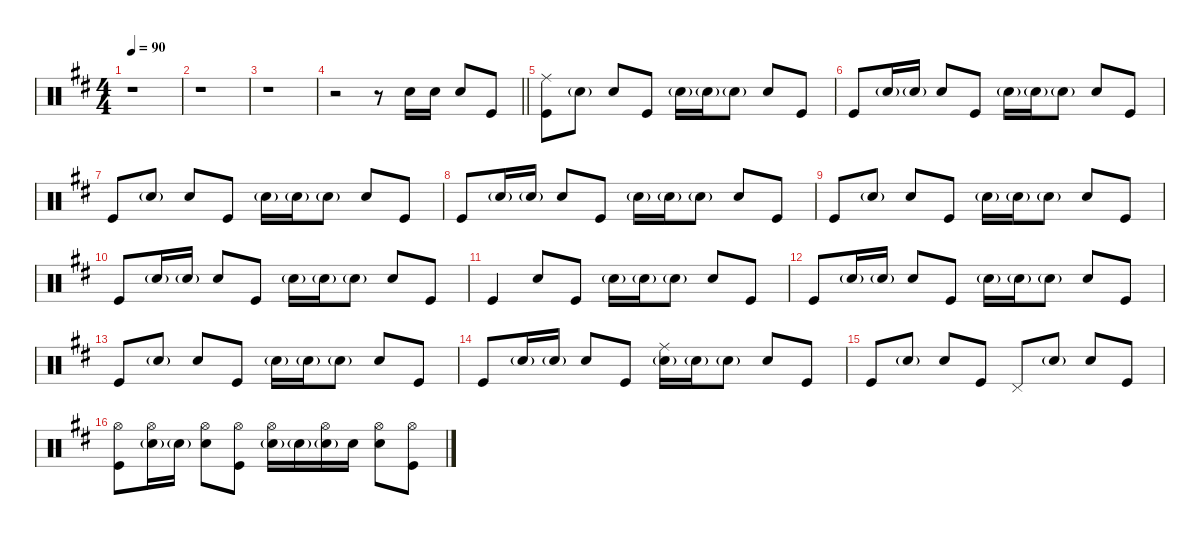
\defaultSystemsLayout 4
\hideDynamics
\bracketExtendMode nobrackets
\singleTrackTrackNamePolicy hidden
\multiTrackTrackNamePolicy hidden
\otherSystemsTrackNameOrientation horizontal
\track ("Drums" "drm.") {instrument percussion}
\staff {score}
\articulation defaults
\ts (4 4)
\tempo 90
\clef neutral
\ks bminor
r.1{dy ppp beam Down} |
r.1{beam Down} |
r.1{beam Down} |
\barLineRight lightlight
r.2{beam Down} r.8{beam Down} "Snare (hit) 2"{acc forcenatural}.16{beam Down} "Snare (hit) 2"{acc forcenatural}.16{dy p beam Down} "Snare (hit) 2"{acc forcenatural}.8{dy mp beam Up} "Kick (hit)"{acc forcenatural}.8{dy p beam Up} |
("Kick (hit)"{acc forcenatural} "Ride (middle)"{acc forcenatural}).8{beam Down} "Snare (hit) 2"{g acc forcenatural}.8{dy pp beam Down} "Snare (hit) 2"{acc forcenatural}.8{dy mp beam Up} "Kick (hit)"{acc forcenatural}.8{dy p beam Up} "Snare (hit) 2"{g acc forcenatural}.16{dy pp beam Down} "Snare (hit) 2"{g acc forcenatural}.16{beam Down} "Snare (hit) 2"{g acc forcenatural}.8{beam Down} "Snare (hit) 2"{acc forcenatural}.8{dy mp beam Up} "Kick (hit)"{acc forcenatural}.8{dy p beam Up} |
"Kick (hit)"{acc forcenatural}.8{beam Up} "Snare (hit) 2"{g acc forcenatural}.16{dy pp beam Up} "Snare (hit) 2"{g acc forcenatural}.16{beam Up} "Snare (hit) 2"{acc forcenatural}.8{dy mp beam Up} "Kick (hit)"{acc forcenatural}.8{dy p beam Up} "Snare (hit) 2"{g acc forcenatural}.16{dy pp beam Down} "Snare (hit) 2"{g acc forcenatural}.16{beam Down} "Snare (hit) 2"{g acc forcenatural}.8{beam Down} "Snare (hit) 2"{acc forcenatural}.8{dy mp beam Up} "Kick (hit)"{acc forcenatural}.8{dy pp beam Up} |
"Kick (hit)"{acc forcenatural}.8{dy p beam Up} "Snare (hit) 2"{g acc forcenatural}.8{dy pp beam Up} "Snare (hit) 2"{acc forcenatural}.8{dy mp beam Up} "Kick (hit)"{acc forcenatural}.8{dy p beam Up} "Snare (hit) 2"{g acc forcenatural}.16{dy pp beam Down} "Snare (hit) 2"{g acc forcenatural}.16{beam Down} "Snare (hit) 2"{g acc forcenatural}.8{beam Down} "Snare (hit) 2"{acc forcenatural}.8{dy mp beam Up} "Kick (hit)"{acc forcenatural}.8{beam Up} |
"Kick (hit)"{acc forcenatural}.8{beam Up} "Snare (hit) 2"{g acc forcenatural}.16{dy pp beam Up} "Snare (hit) 2"{g acc forcenatural}.16{beam Up} "Snare (hit) 2"{acc forcenatural}.8{dy mf beam Up} "Kick (hit)"{acc forcenatural}.8{dy mp beam Up} "Snare (hit) 2"{g acc forcenatural}.16{dy pp beam Down} "Snare (hit) 2"{g acc forcenatural}.16{beam Down} "Snare (hit) 2"{g acc forcenatural}.8{beam Down} "Snare (hit) 2"{acc forcenatural}.8{dy mf beam Up} "Kick (hit)"{acc forcenatural}.8{dy mp beam Up} |
"Kick (hit)"{acc forcenatural}.8{dy p beam Up} "Snare (hit) 2"{g acc forcenatural}.8{dy pp beam Up} "Snare (hit) 2"{acc forcenatural}.8{dy mf beam Up} "Kick (hit)"{acc forcenatural}.8{dy p beam Up} "Snare (hit) 2"{g acc forcenatural}.16{dy pp beam Down} "Snare (hit) 2"{g acc forcenatural}.16{beam Down} "Snare (hit) 2"{g acc forcenatural}.8{beam Down} "Snare (hit) 2"{acc forcenatural}.8{dy mf beam Up} "Kick (hit)"{acc forcenatural}.8{dy mp beam Up} |
"Kick (hit)"{acc forcenatural}.8{beam Up} "Snare (hit) 2"{g acc forcenatural}.16{dy pp beam Up} "Snare (hit) 2"{g acc forcenatural}.16{beam Up} "Snare (hit) 2"{acc forcenatural}.8{dy mf beam Up} "Kick (hit)"{acc forcenatural}.8{dy mp beam Up} "Snare (hit) 2"{g acc forcenatural}.16{dy pp beam Down} "Snare (hit) 2"{g acc forcenatural}.16{beam Down} "Snare (hit) 2"{g acc forcenatural}.8{beam Down} "Snare (hit) 2"{acc forcenatural}.8{dy mf beam Up} "Kick (hit)"{acc forcenatural}.8{dy mp beam Up} |
"Kick (hit)"{acc forcenatural}.4{dy mf beam Up} "Snare (hit) 2"{acc forcenatural}.8{dy f beam Up} "Kick (hit)"{acc forcenatural}.8{dy mp beam Up} "Snare (hit) 2"{g acc forcenatural}.16{dy pp beam Down} "Snare (hit) 2"{g acc forcenatural}.16{beam Down} "Snare (hit) 2"{g acc forcenatural}.8{beam Down} "Snare (hit) 2"{acc forcenatural}.8{dy f beam Up} "Kick (hit)"{acc forcenatural}.8{dy mf beam Up} |
"Kick (hit)"{acc forcenatural}.8{dy mp beam Up} "Snare (hit) 2"{g acc forcenatural}.16{dy pp beam Up} "Snare (hit) 2"{g acc forcenatural}.16{beam Up} "Snare (hit) 2"{acc forcenatural}.8{dy f beam Up} "Kick (hit)"{acc forcenatural}.8{dy mp beam Up} "Snare (hit) 2"{g acc forcenatural}.16{dy pp beam Down} "Snare (hit) 2"{g acc forcenatural}.16{beam Down} "Snare (hit) 2"{g acc forcenatural}.8{beam Down} "Snare (hit) 2"{acc forcenatural}.8{dy f beam Up} "Kick (hit)"{acc forcenatural}.8{dy mf beam Up} |
"Kick (hit)"{acc forcenatural}.8{beam Up} "Snare (hit) 2"{g acc forcenatural}.8{dy pp beam Up} "Snare (hit) 2"{acc forcenatural}.8{dy f beam Up} "Kick (hit)"{acc forcenatural}.8{dy mf beam Up} "Snare (hit) 2"{g acc forcenatural}.16{dy pp beam Down} "Snare (hit) 2"{g acc forcenatural}.16{beam Down} "Snare (hit) 2"{g acc forcenatural}.8{beam Down} "Snare (hit) 2"{acc forcenatural}.8{dy f beam Up} "Kick (hit)"{acc forcenatural}.8{dy mf beam Up} |
"Kick (hit)"{acc forcenatural}.8{beam Up} "Snare (hit) 2"{g acc forcenatural}.16{dy pp beam Up} "Snare (hit) 2"{g acc forcenatural}.16{beam Up} "Snare (hit) 2"{acc forcenatural}.8{dy f beam Up} "Kick (hit)"{acc forcenatural}.8{dy mp beam Up} ("Snare (hit) 2"{g acc forcenatural} "Ride (middle)"{acc forcenatural}).16{dy pp beam Down} "Snare (hit) 2"{g acc forcenatural}.16{beam Down} "Snare (hit) 2"{g acc forcenatural}.8{beam Down} "Snare (hit) 2"{acc forcenatural}.8{dy f beam Up} "Kick (hit)"{acc forcenatural}.8{dy mf beam Up} |
"Kick (hit)"{acc forcenatural}.8{beam Up} "Snare (hit) 2"{g acc forcenatural}.8{dy pp beam Up} "Snare (hit) 2"{acc forcenatural}.8{dy f beam Up} "Kick (hit)"{acc forcenatural}.8{dy mf beam Up} "Pedal Hi-Hat (hit)"{acc forcenatural}.8{dy mp beam Up} "Snare (hit) 2"{g acc forcenatural}.8{dy pp beam Up} "Snare (hit) 2"{acc forcenatural}.8{dy f beam Up} "Kick (hit)"{acc forcenatural}.8{dy mf beam Up} |
("Kick (hit)"{acc forcenatural} "Hi-Hat (open)"{acc forcenatural}).8{beam Down} ("Snare (hit) 2"{g acc forcenatural} "Hi-Hat (open)"{acc forcenatural}).16{dy ppp beam Down} "Snare (hit) 2"{g acc forcenatural}.16{dy pp beam Down} ("Snare (hit) 2"{acc forcenatural} "Hi-Hat (open)"{acc forcenatural}).8{dy f beam Down} ("Kick (hit)"{acc forcenatural} "Hi-Hat (open)"{acc forcenatural}).8{dy mp beam Down} ("Snare (hit) 2"{g acc forcenatural} "Hi-Hat (open)"{acc forcenatural}).16{dy pp beam Down} "Snare (hit) 2"{g acc forcenatural}.16{beam Down} ("Snare (hit) 2"{g acc forcenatural} "Hi-Hat (open)"{acc forcenatural}).16{beam Down} "Snare (hit) 2"{acc forcenatural}.16{dy mf beam Down} ("Snare (hit) 2"{acc forcenatural} "Hi-Hat (open)"{acc forcenatural}).8{dy f beam Down} ("Kick (hit)"{acc forcenatural} "Hi-Hat (open)"{acc forcenatural}).8{dy mf beam Down}
